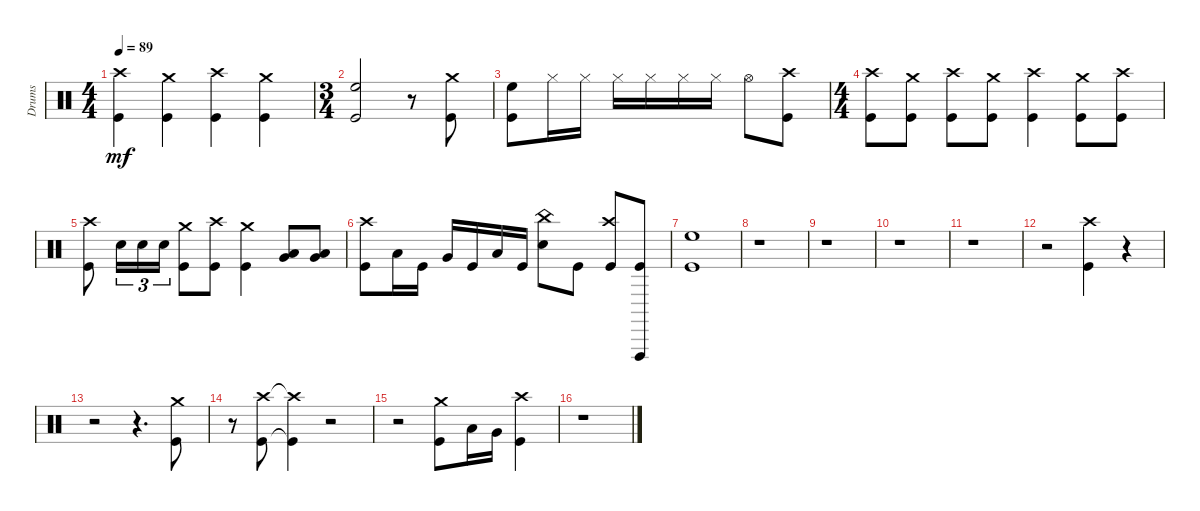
\track ("Drums" "Drums") {instrument percussion}
\staff {score}
\articulation defaults
\ts (4 4)
\tempo 89
\clef neutral
\ks aminor
("Kick (hit)" "Crash high (hit)").4{dy mf} ("Kick (hit)" "Crash medium (hit)").4 ("Crash high (hit)" "Kick (hit)").4 ("Crash medium (hit)" "Kick (hit)").4 |
\ts (3 4)
("Kick (hit)" "High Floor Tom (hit)").2 r.8 ("Kick (hit)" "Crash medium (hit)").8 |
("High Floor Tom (hit)" "Kick (hit)").8 "Hi-Hat (closed)".16 "Hi-Hat (closed)".16 "Hi-Hat (closed)".16 "Hi-Hat (closed)".16 "Hi-Hat (closed)".16 "Hi-Hat (closed)".16 "Hi-Hat (open)".8 ("Crash high (hit)" "Kick (hit)").8 |
\ts (4 4)
("Crash high (hit)" "Kick (hit)").8 ("Crash medium (hit)" "Kick (hit)").8 ("Crash high (hit)" "Kick (hit)").8 ("Kick (hit)" "Crash medium (hit)").8 ("Crash high (hit)" "Kick (hit)").4 ("Kick (hit)" "Crash medium (hit)").8 ("Kick (hit)" "Crash high (hit)").8 |
("Kick (hit)" "Crash high (hit)").8 "Snare (hit) 2".16{tu (3 2)} "Snare (hit) 2".16{tu (3 2)} "Snare (hit) 2".16{tu (3 2)} ("Kick (hit)" "Crash medium (hit)").8 ("Kick (hit)" "Crash high (hit)").8 ("Kick (hit)" "Crash medium (hit)").4 ("Low Floor Tom (hit)" "Very Low Tom (hit)").8 ("Very Low Tom (hit)" "Low Floor Tom (hit)").8 |
("Kick (hit)" "Crash high (hit)").8 "Low Tom (hit)".16 "Kick (hit)".16 "Very Low Tom (hit)".16 "Kick (hit)".16 "Low Floor Tom (hit)".16 "Kick (hit)".16 ("Snare (hit) 2" "China (hit)").8 "Kick (hit)".8 ("Crash high (hit)" "Kick (hit)").8 ("Vibraslap (hit)" "Kick (hit)").8 |
("Kick (hit)" "High Floor Tom (hit)").1 |
r.1 |
r.1 |
r.1 |
r.1 |
r.2 ("Crash high (hit)" "Kick (hit)").4 r.4 |
r.2 r.4{d} ("Kick (hit)" "Crash medium (hit)").8 |
r.8 ("Kick (hit)" "Crash high (hit)").8 ("Kick (hit)"{t} "Crash high (hit)"{t}).4 r.2 |
r.2 ("Crash medium (hit)" "Kick (hit)").8 "Low Tom (hit)".16 "Very Low Tom (hit)".16 ("Crash high (hit)" "Kick (hit)").4 |
r.1
